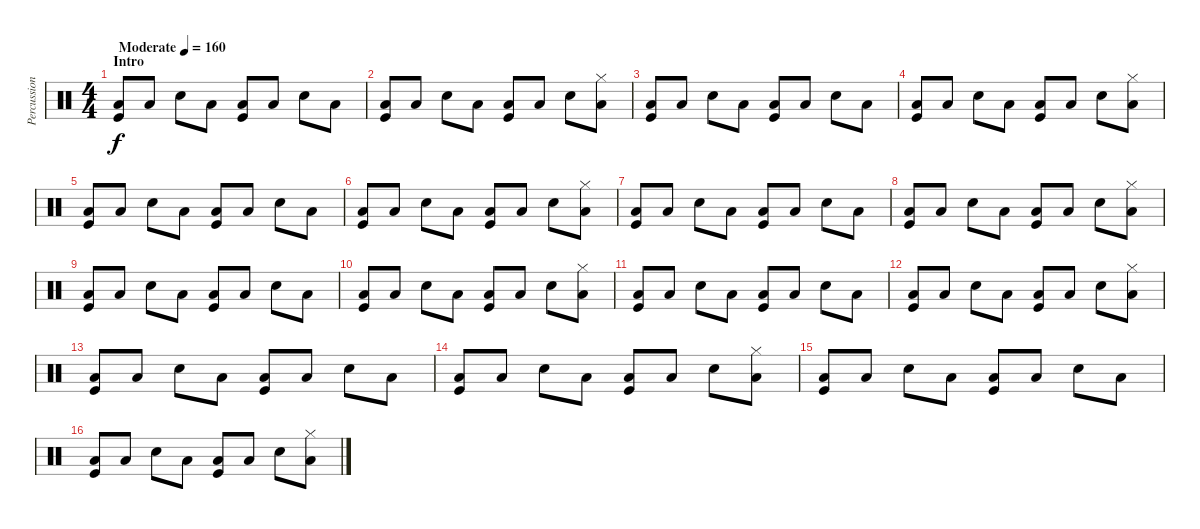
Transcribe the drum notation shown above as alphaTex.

\track ("Percussion" "Percussion") {instrument percussion}
\staff {score}
\articulation defaults
\ts (4 4)
\section ("" "Intro")
\tempo (160 "Moderate")
\clef neutral
\ks c
("Kick (hit)" "Low Floor Tom (hit)").8{dy f} "Low Floor Tom (hit)".8 "Electric Snare (hit)".8 "Low Floor Tom (hit)".8 ("Kick (hit)" "Low Floor Tom (hit)").8 "Low Floor Tom (hit)".8 "Electric Snare (hit)".8 "Low Floor Tom (hit)".8 |
("Kick (hit)" "Low Floor Tom (hit)").8 "Low Floor Tom (hit)".8 "Electric Snare (hit)".8 "Low Floor Tom (hit)".8 ("Kick (hit)" "Low Floor Tom (hit)").8 "Low Floor Tom (hit)".8 "Electric Snare (hit)".8 ("Low Floor Tom (hit)" "Hi-Hat (closed)").8 |
("Kick (hit)" "Low Floor Tom (hit)").8 "Low Floor Tom (hit)".8 "Electric Snare (hit)".8 "Low Floor Tom (hit)".8 ("Kick (hit)" "Low Floor Tom (hit)").8 "Low Floor Tom (hit)".8 "Electric Snare (hit)".8 "Low Floor Tom (hit)".8 |
("Kick (hit)" "Low Floor Tom (hit)").8 "Low Floor Tom (hit)".8 "Electric Snare (hit)".8 "Low Floor Tom (hit)".8 ("Kick (hit)" "Low Floor Tom (hit)").8 "Low Floor Tom (hit)".8 "Electric Snare (hit)".8 ("Low Floor Tom (hit)" "Hi-Hat (closed)").8 |
("Kick (hit)" "Low Floor Tom (hit)").8 "Low Floor Tom (hit)".8 "Electric Snare (hit)".8 "Low Floor Tom (hit)".8 ("Kick (hit)" "Low Floor Tom (hit)").8 "Low Floor Tom (hit)".8 "Electric Snare (hit)".8 "Low Floor Tom (hit)".8 |
("Kick (hit)" "Low Floor Tom (hit)").8 "Low Floor Tom (hit)".8 "Electric Snare (hit)".8 "Low Floor Tom (hit)".8 ("Kick (hit)" "Low Floor Tom (hit)").8 "Low Floor Tom (hit)".8 "Electric Snare (hit)".8 ("Low Floor Tom (hit)" "Hi-Hat (closed)").8 |
("Kick (hit)" "Low Floor Tom (hit)").8 "Low Floor Tom (hit)".8 "Electric Snare (hit)".8 "Low Floor Tom (hit)".8 ("Kick (hit)" "Low Floor Tom (hit)").8 "Low Floor Tom (hit)".8 "Electric Snare (hit)".8 "Low Floor Tom (hit)".8 |
("Kick (hit)" "Low Floor Tom (hit)").8 "Low Floor Tom (hit)".8 "Electric Snare (hit)".8 "Low Floor Tom (hit)".8 ("Kick (hit)" "Low Floor Tom (hit)").8 "Low Floor Tom (hit)".8 "Electric Snare (hit)".8 ("Low Floor Tom (hit)" "Hi-Hat (closed)").8 |
("Kick (hit)" "Low Floor Tom (hit)").8 "Low Floor Tom (hit)".8 "Electric Snare (hit)".8 "Low Floor Tom (hit)".8 ("Kick (hit)" "Low Floor Tom (hit)").8 "Low Floor Tom (hit)".8 "Electric Snare (hit)".8 "Low Floor Tom (hit)".8 |
("Kick (hit)" "Low Floor Tom (hit)").8 "Low Floor Tom (hit)".8 "Electric Snare (hit)".8 "Low Floor Tom (hit)".8 ("Kick (hit)" "Low Floor Tom (hit)").8 "Low Floor Tom (hit)".8 "Electric Snare (hit)".8 ("Low Floor Tom (hit)" "Hi-Hat (closed)").8 |
("Kick (hit)" "Low Floor Tom (hit)").8 "Low Floor Tom (hit)".8 "Electric Snare (hit)".8 "Low Floor Tom (hit)".8 ("Kick (hit)" "Low Floor Tom (hit)").8 "Low Floor Tom (hit)".8 "Electric Snare (hit)".8 "Low Floor Tom (hit)".8 |
("Kick (hit)" "Low Floor Tom (hit)").8 "Low Floor Tom (hit)".8 "Electric Snare (hit)".8 "Low Floor Tom (hit)".8 ("Kick (hit)" "Low Floor Tom (hit)").8 "Low Floor Tom (hit)".8 "Electric Snare (hit)".8 ("Low Floor Tom (hit)" "Hi-Hat (closed)").8 |
("Kick (hit)" "Low Floor Tom (hit)").8 "Low Floor Tom (hit)".8 "Electric Snare (hit)".8 "Low Floor Tom (hit)".8 ("Kick (hit)" "Low Floor Tom (hit)").8 "Low Floor Tom (hit)".8 "Electric Snare (hit)".8 "Low Floor Tom (hit)".8 |
("Kick (hit)" "Low Floor Tom (hit)").8 "Low Floor Tom (hit)".8 "Electric Snare (hit)".8 "Low Floor Tom (hit)".8 ("Kick (hit)" "Low Floor Tom (hit)").8 "Low Floor Tom (hit)".8 "Electric Snare (hit)".8 ("Low Floor Tom (hit)" "Hi-Hat (closed)").8 |
("Kick (hit)" "Low Floor Tom (hit)").8 "Low Floor Tom (hit)".8 "Electric Snare (hit)".8 "Low Floor Tom (hit)".8 ("Kick (hit)" "Low Floor Tom (hit)").8 "Low Floor Tom (hit)".8 "Electric Snare (hit)".8 "Low Floor Tom (hit)".8 |
("Kick (hit)" "Low Floor Tom (hit)").8 "Low Floor Tom (hit)".8 "Electric Snare (hit)".8 "Low Floor Tom (hit)".8 ("Kick (hit)" "Low Floor Tom (hit)").8 "Low Floor Tom (hit)".8 "Electric Snare (hit)".8 ("Low Floor Tom (hit)" "Hi-Hat (closed)").8
